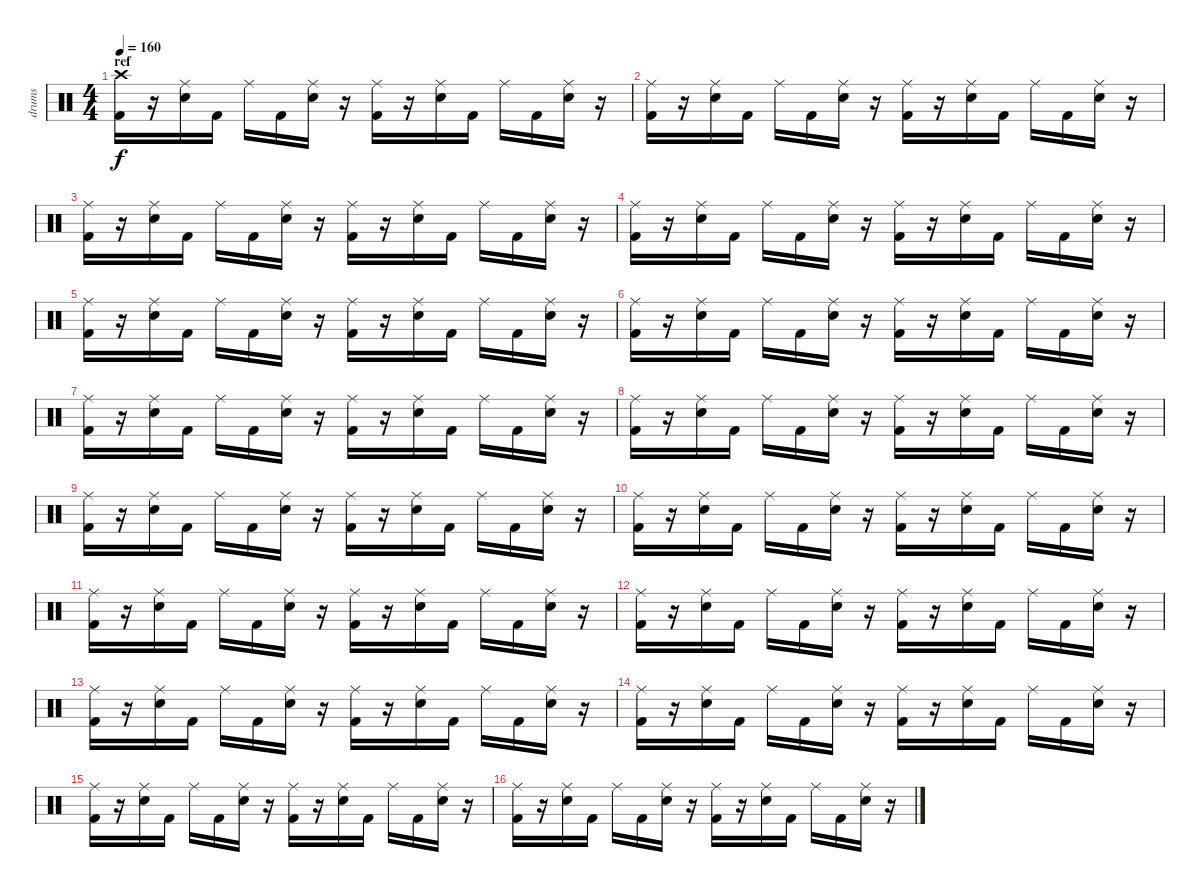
\track ("drums" "drums") {instrument percussion}
\staff {score}
\articulation defaults
\ts (4 4)
\section ("" "ref")
\tempo 160
\clef neutral
\ks c
("Crash high (hit)" "Kick (hit) 2").16{dy f} r.16 ("Ride (middle)" "Electric Snare (hit)").16 "Kick (hit) 2".16 "Ride (middle)".16 "Kick (hit) 2".16 ("Ride (middle)" "Electric Snare (hit)").16 r.16 ("Ride (middle)" "Kick (hit) 2").16 r.16 ("Ride (middle)" "Electric Snare (hit)").16 "Kick (hit) 2".16 "Ride (middle)".16 "Kick (hit) 2".16 ("Ride (middle)" "Electric Snare (hit)").16 r.16 |
("Ride (middle)" "Kick (hit) 2").16 r.16 ("Ride (middle)" "Electric Snare (hit)").16 "Kick (hit) 2".16 "Ride (middle)".16 "Kick (hit) 2".16 ("Ride (middle)" "Electric Snare (hit)").16 r.16 ("Ride (middle)" "Kick (hit) 2").16 r.16 ("Ride (middle)" "Electric Snare (hit)").16 "Kick (hit) 2".16 "Ride (middle)".16 "Kick (hit) 2".16 ("Ride (middle)" "Electric Snare (hit)").16 r.16 |
("Ride (middle)" "Kick (hit) 2").16 r.16 ("Ride (middle)" "Electric Snare (hit)").16 "Kick (hit) 2".16 "Ride (middle)".16 "Kick (hit) 2".16 ("Ride (middle)" "Electric Snare (hit)").16 r.16 ("Ride (middle)" "Kick (hit) 2").16 r.16 ("Ride (middle)" "Electric Snare (hit)").16 "Kick (hit) 2".16 "Ride (middle)".16 "Kick (hit) 2".16 ("Ride (middle)" "Electric Snare (hit)").16 r.16 |
("Ride (middle)" "Kick (hit) 2").16 r.16 ("Ride (middle)" "Electric Snare (hit)").16 "Kick (hit) 2".16 "Ride (middle)".16 "Kick (hit) 2".16 ("Ride (middle)" "Electric Snare (hit)").16 r.16 ("Ride (middle)" "Kick (hit) 2").16 r.16 ("Ride (middle)" "Electric Snare (hit)").16 "Kick (hit) 2".16 "Ride (middle)".16 "Kick (hit) 2".16 ("Ride (middle)" "Electric Snare (hit)").16 r.16 |
("Ride (middle)" "Kick (hit) 2").16 r.16 ("Ride (middle)" "Electric Snare (hit)").16 "Kick (hit) 2".16 "Ride (middle)".16 "Kick (hit) 2".16 ("Ride (middle)" "Electric Snare (hit)").16 r.16 ("Ride (middle)" "Kick (hit) 2").16 r.16 ("Ride (middle)" "Electric Snare (hit)").16 "Kick (hit) 2".16 "Ride (middle)".16 "Kick (hit) 2".16 ("Ride (middle)" "Electric Snare (hit)").16 r.16 |
("Ride (middle)" "Kick (hit) 2").16 r.16 ("Ride (middle)" "Electric Snare (hit)").16 "Kick (hit) 2".16 "Ride (middle)".16 "Kick (hit) 2".16 ("Ride (middle)" "Electric Snare (hit)").16 r.16 ("Ride (middle)" "Kick (hit) 2").16 r.16 ("Ride (middle)" "Electric Snare (hit)").16 "Kick (hit) 2".16 "Ride (middle)".16 "Kick (hit) 2".16 ("Ride (middle)" "Electric Snare (hit)").16 r.16 |
("Ride (middle)" "Kick (hit) 2").16 r.16 ("Ride (middle)" "Electric Snare (hit)").16 "Kick (hit) 2".16 "Ride (middle)".16 "Kick (hit) 2".16 ("Ride (middle)" "Electric Snare (hit)").16 r.16 ("Ride (middle)" "Kick (hit) 2").16 r.16 ("Ride (middle)" "Electric Snare (hit)").16 "Kick (hit) 2".16 "Ride (middle)".16 "Kick (hit) 2".16 ("Ride (middle)" "Electric Snare (hit)").16 r.16 |
("Ride (middle)" "Kick (hit) 2").16 r.16 ("Ride (middle)" "Electric Snare (hit)").16 "Kick (hit) 2".16 "Ride (middle)".16 "Kick (hit) 2".16 ("Ride (middle)" "Electric Snare (hit)").16 r.16 ("Ride (middle)" "Kick (hit) 2").16 r.16 ("Ride (middle)" "Electric Snare (hit)").16 "Kick (hit) 2".16 "Ride (middle)".16 "Kick (hit) 2".16 ("Ride (middle)" "Electric Snare (hit)").16 r.16 |
("Ride (middle)" "Kick (hit) 2").16 r.16 ("Ride (middle)" "Electric Snare (hit)").16 "Kick (hit) 2".16 "Ride (middle)".16 "Kick (hit) 2".16 ("Ride (middle)" "Electric Snare (hit)").16 r.16 ("Ride (middle)" "Kick (hit) 2").16 r.16 ("Ride (middle)" "Electric Snare (hit)").16 "Kick (hit) 2".16 "Ride (middle)".16 "Kick (hit) 2".16 ("Ride (middle)" "Electric Snare (hit)").16 r.16 |
("Ride (middle)" "Kick (hit) 2").16 r.16 ("Ride (middle)" "Electric Snare (hit)").16 "Kick (hit) 2".16 "Ride (middle)".16 "Kick (hit) 2".16 ("Ride (middle)" "Electric Snare (hit)").16 r.16 ("Ride (middle)" "Kick (hit) 2").16 r.16 ("Ride (middle)" "Electric Snare (hit)").16 "Kick (hit) 2".16 "Ride (middle)".16 "Kick (hit) 2".16 ("Ride (middle)" "Electric Snare (hit)").16 r.16 |
("Ride (middle)" "Kick (hit) 2").16 r.16 ("Ride (middle)" "Electric Snare (hit)").16 "Kick (hit) 2".16 "Ride (middle)".16 "Kick (hit) 2".16 ("Ride (middle)" "Electric Snare (hit)").16 r.16 ("Ride (middle)" "Kick (hit) 2").16 r.16 ("Ride (middle)" "Electric Snare (hit)").16 "Kick (hit) 2".16 "Ride (middle)".16 "Kick (hit) 2".16 ("Ride (middle)" "Electric Snare (hit)").16 r.16 |
("Ride (middle)" "Kick (hit) 2").16 r.16 ("Ride (middle)" "Electric Snare (hit)").16 "Kick (hit) 2".16 "Ride (middle)".16 "Kick (hit) 2".16 ("Ride (middle)" "Electric Snare (hit)").16 r.16 ("Ride (middle)" "Kick (hit) 2").16 r.16 ("Ride (middle)" "Electric Snare (hit)").16 "Kick (hit) 2".16 "Ride (middle)".16 "Kick (hit) 2".16 ("Ride (middle)" "Electric Snare (hit)").16 r.16 |
("Ride (middle)" "Kick (hit) 2").16 r.16 ("Ride (middle)" "Electric Snare (hit)").16 "Kick (hit) 2".16 "Ride (middle)".16 "Kick (hit) 2".16 ("Ride (middle)" "Electric Snare (hit)").16 r.16 ("Ride (middle)" "Kick (hit) 2").16 r.16 ("Ride (middle)" "Electric Snare (hit)").16 "Kick (hit) 2".16 "Ride (middle)".16 "Kick (hit) 2".16 ("Ride (middle)" "Electric Snare (hit)").16 r.16 |
("Ride (middle)" "Kick (hit) 2").16 r.16 ("Ride (middle)" "Electric Snare (hit)").16 "Kick (hit) 2".16 "Ride (middle)".16 "Kick (hit) 2".16 ("Ride (middle)" "Electric Snare (hit)").16 r.16 ("Ride (middle)" "Kick (hit) 2").16 r.16 ("Ride (middle)" "Electric Snare (hit)").16 "Kick (hit) 2".16 "Ride (middle)".16 "Kick (hit) 2".16 ("Ride (middle)" "Electric Snare (hit)").16 r.16 |
("Ride (middle)" "Kick (hit) 2").16 r.16 ("Ride (middle)" "Electric Snare (hit)").16 "Kick (hit) 2".16 "Ride (middle)".16 "Kick (hit) 2".16 ("Ride (middle)" "Electric Snare (hit)").16 r.16 ("Ride (middle)" "Kick (hit) 2").16 r.16 ("Ride (middle)" "Electric Snare (hit)").16 "Kick (hit) 2".16 "Ride (middle)".16 "Kick (hit) 2".16 ("Ride (middle)" "Electric Snare (hit)").16 r.16 |
("Ride (middle)" "Kick (hit) 2").16 r.16 ("Ride (middle)" "Electric Snare (hit)").16 "Kick (hit) 2".16 "Ride (middle)".16 "Kick (hit) 2".16 ("Ride (middle)" "Electric Snare (hit)").16 r.16 ("Ride (middle)" "Kick (hit) 2").16 r.16 ("Ride (middle)" "Electric Snare (hit)").16 "Kick (hit) 2".16 "Ride (middle)".16 "Kick (hit) 2".16 ("Ride (middle)" "Electric Snare (hit)").16 r.16
